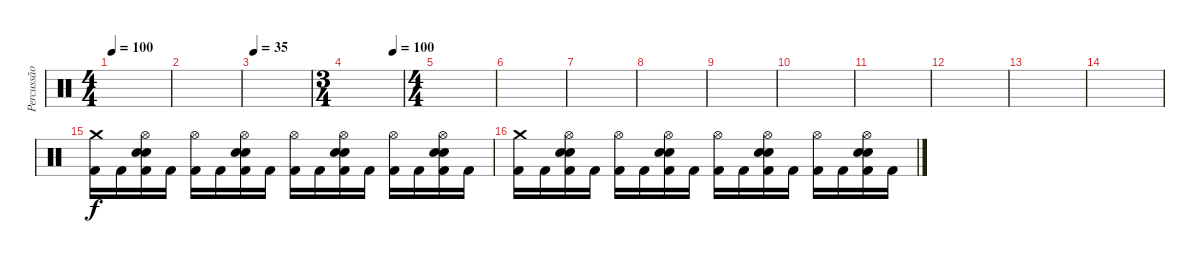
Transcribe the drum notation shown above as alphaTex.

\track ("Percussão" "Percussão") {instrument percussion}
\staff {score}
\articulation defaults
\ts (4 4)
\tempo 100
\clef neutral
\ks c
|
|
\tempo 35
|
\ts (3 4)
\tempo (100 0.8333333333333334)
|
\ts (4 4)
|
|
|
|
|
|
|
|
|
|
("Crash medium (hit)" "Kick (hit) 2").16{dy f} "Kick (hit) 2".16 ("Hi-Hat (open)" "Electric Snare (hit)" "Snare (hit) 2" "Kick (hit) 2").16 "Kick (hit) 2".16 ("Hi-Hat (open)" "Kick (hit) 2").16 "Kick (hit) 2".16 ("Hi-Hat (open)" "Electric Snare (hit)" "Snare (hit) 2" "Kick (hit) 2").16 "Kick (hit) 2".16 ("Hi-Hat (open)" "Kick (hit) 2").16 "Kick (hit) 2".16 ("Hi-Hat (open)" "Electric Snare (hit)" "Snare (hit) 2" "Kick (hit) 2").16 "Kick (hit) 2".16 ("Hi-Hat (open)" "Kick (hit) 2").16 "Kick (hit) 2".16 ("Hi-Hat (open)" "Electric Snare (hit)" "Snare (hit) 2" "Kick (hit) 2").16 "Kick (hit) 2".16 |
("Crash medium (hit)" "Kick (hit) 2").16 "Kick (hit) 2".16 ("Hi-Hat (open)" "Electric Snare (hit)" "Snare (hit) 2" "Kick (hit) 2").16 "Kick (hit) 2".16 ("Hi-Hat (open)" "Kick (hit) 2").16 "Kick (hit) 2".16 ("Hi-Hat (open)" "Electric Snare (hit)" "Snare (hit) 2" "Kick (hit) 2").16 "Kick (hit) 2".16 ("Hi-Hat (open)" "Kick (hit) 2").16 "Kick (hit) 2".16 ("Hi-Hat (open)" "Electric Snare (hit)" "Snare (hit) 2" "Kick (hit) 2").16 "Kick (hit) 2".16 ("Hi-Hat (open)" "Kick (hit) 2").16 "Kick (hit) 2".16 ("Hi-Hat (open)" "Electric Snare (hit)" "Snare (hit) 2" "Kick (hit) 2").16 "Kick (hit) 2".16
